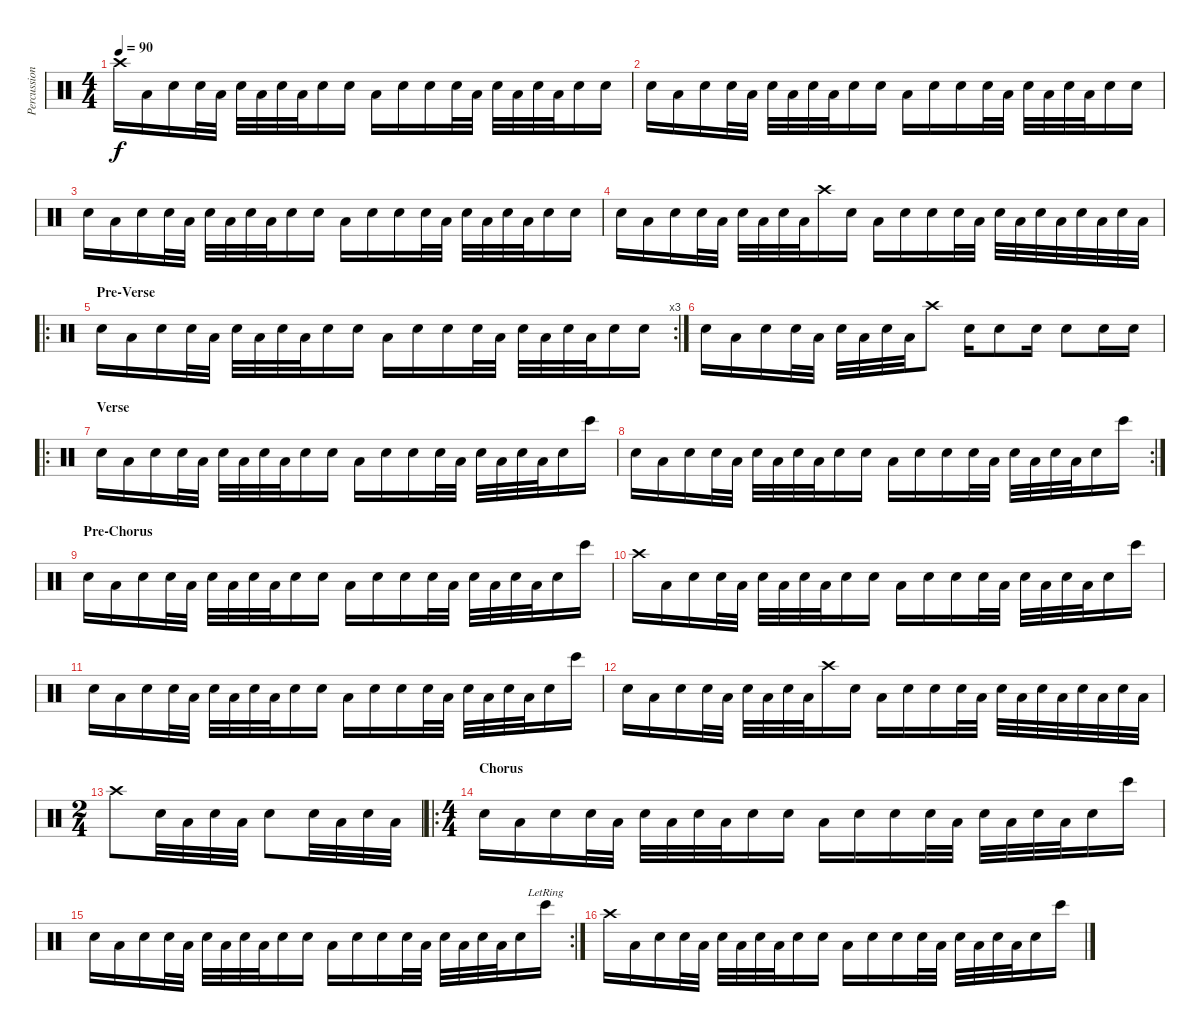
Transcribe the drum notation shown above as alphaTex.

\track ("Percussion" "Percussion") {instrument percussion}
\staff {score}
\articulation defaults
\ts (4 4)
\tempo 90
\clef neutral
\ks c "Crash high (hit)".16{dy f} "Low Floor Tom (hit)".16 "Hand Clap (hit)".16 "Electric Snare (hit)".32 "Low Floor Tom (hit)".32 "Electric Snare (hit)".32 "Low Floor Tom (hit)".32 "Electric Snare (hit)".32 "Low Floor Tom (hit)".32 "Hand Clap (hit)".16 "Electric Snare (hit)".16 "Low Floor Tom (hit)".16 "Electric Snare (hit)".16 "Hand Clap (hit)".16 "Electric Snare (hit)".32 "Low Floor Tom (hit)".32 "Electric Snare (hit)".32 "Low Floor Tom (hit)".32 "Electric Snare (hit)".32 "Low Floor Tom (hit)".32 "Hand Clap (hit)".16 "Snare (hit) 2".16
|
"Electric Snare (hit)".16 "Low Floor Tom (hit)".16 "Hand Clap (hit)".16 "Electric Snare (hit)".32 "Low Floor Tom (hit)".32 "Electric Snare (hit)".32 "Low Floor Tom (hit)".32 "Electric Snare (hit)".32 "Low Floor Tom (hit)".32 "Hand Clap (hit)".16 "Electric Snare (hit)".16 "Low Floor Tom (hit)".16 "Electric Snare (hit)".16 "Hand Clap (hit)".16 "Electric Snare (hit)".32 "Low Floor Tom (hit)".32 "Electric Snare (hit)".32 "Low Floor Tom (hit)".32 "Electric Snare (hit)".32 "Low Floor Tom (hit)".32 "Hand Clap (hit)".16 "Snare (hit) 2".16 |
"Electric Snare (hit)".16 "Low Floor Tom (hit)".16 "Hand Clap (hit)".16 "Electric Snare (hit)".32 "Low Floor Tom (hit)".32 "Electric Snare (hit)".32 "Low Floor Tom (hit)".32 "Electric Snare (hit)".32 "Low Floor Tom (hit)".32 "Hand Clap (hit)".16 "Electric Snare (hit)".16 "Low Floor Tom (hit)".16 "Electric Snare (hit)".16 "Hand Clap (hit)".16 "Electric Snare (hit)".32 "Low Floor Tom (hit)".32 "Electric Snare (hit)".32 "Low Floor Tom (hit)".32 "Electric Snare (hit)".32 "Low Floor Tom (hit)".32 "Hand Clap (hit)".16 "Snare (hit) 2".16 |
"Electric Snare (hit)".16 "Low Floor Tom (hit)".16 "Hand Clap (hit)".16 "Electric Snare (hit)".32 "Low Floor Tom (hit)".32 "Electric Snare (hit)".32 "Low Floor Tom (hit)".32 "Electric Snare (hit)".32 "Low Floor Tom (hit)".32 "Crash high (hit)".16 "Electric Snare (hit)".16 "Low Floor Tom (hit)".16 "Electric Snare (hit)".16 "Hand Clap (hit)".16 "Electric Snare (hit)".32 "Low Floor Tom (hit)".32 "Electric Snare (hit)".32 "Low Floor Tom (hit)".32 "Electric Snare (hit)".32 "Low Floor Tom (hit)".32 "Electric Snare (hit)".32 "Low Floor Tom (hit)".32 "Electric Snare (hit)".32 "Low Floor Tom (hit)".32 |
\ro
\rc 3
\section ("" "Pre-Verse")
"Electric Snare (hit)".16 "Low Floor Tom (hit)".16 "Hand Clap (hit)".16 "Electric Snare (hit)".32 "Low Floor Tom (hit)".32 "Electric Snare (hit)".32 "Low Floor Tom (hit)".32 "Electric Snare (hit)".32 "Low Floor Tom (hit)".32 "Hand Clap (hit)".16 "Electric Snare (hit)".16 "Low Floor Tom (hit)".16 "Electric Snare (hit)".16 "Hand Clap (hit)".16 "Electric Snare (hit)".32 "Low Floor Tom (hit)".32 "Electric Snare (hit)".32 "Low Floor Tom (hit)".32 "Electric Snare (hit)".32 "Low Floor Tom (hit)".32 "Hand Clap (hit)".16 "Snare (hit) 2".16 |
"Electric Snare (hit)".16 "Low Floor Tom (hit)".16 "Hand Clap (hit)".16 "Electric Snare (hit)".32 "Low Floor Tom (hit)".32 "Electric Snare (hit)".32 "Low Floor Tom (hit)".32 "Electric Snare (hit)".32 "Low Floor Tom (hit)".32 "Crash high (hit)".8 "Electric Snare (hit)".16 "Snare (hit) 2".8 "Snare (hit) 2".16 "Snare (hit) 2".8 "Snare (hit) 2".16 "Snare (hit) 2".16 |
\ro
\section ("" "Verse")
"Electric Snare (hit)".16 "Low Floor Tom (hit)".16 "Hand Clap (hit)".16 "Electric Snare (hit)".32 "Low Floor Tom (hit)".32 "Electric Snare (hit)".32 "Low Floor Tom (hit)".32 "Electric Snare (hit)".32 "Low Floor Tom (hit)".32 "Hand Clap (hit)".16 "Electric Snare (hit)".16 "Low Floor Tom (hit)".16 "Electric Snare (hit)".16 "Hand Clap (hit)".16 "Electric Snare (hit)".32 "Low Floor Tom (hit)".32 "Electric Snare (hit)".32 "Low Floor Tom (hit)".32 "Electric Snare (hit)".32 "Low Floor Tom (hit)".32 "Hand Clap (hit)".16 "Bongo High (hit)".16 |
\rc 2 "Electric Snare (hit)".16 "Low Floor Tom (hit)".16 "Hand Clap (hit)".16 "Electric Snare (hit)".32 "Low Floor Tom (hit)".32 "Electric Snare (hit)".32 "Low Floor Tom (hit)".32 "Electric Snare (hit)".32 "Low Floor Tom (hit)".32 "Hand Clap (hit)".16 "Electric Snare (hit)".16 "Low Floor Tom (hit)".16 "Electric Snare (hit)".16 "Hand Clap (hit)".16 "Electric Snare (hit)".32 "Low Floor Tom (hit)".32 "Electric Snare (hit)".32 "Low Floor Tom (hit)".32 "Electric Snare (hit)".32 "Low Floor Tom (hit)".32 "Hand Clap (hit)".16 "Bongo High (hit)".16
|
\section ("" "Pre-Chorus")
"Electric Snare (hit)".16 "Low Floor Tom (hit)".16 "Hand Clap (hit)".16 "Electric Snare (hit)".32 "Low Floor Tom (hit)".32 "Electric Snare (hit)".32 "Low Floor Tom (hit)".32 "Electric Snare (hit)".32 "Low Floor Tom (hit)".32 "Hand Clap (hit)".16 "Electric Snare (hit)".16 "Low Floor Tom (hit)".16 "Electric Snare (hit)".16 "Hand Clap (hit)".16 "Electric Snare (hit)".32 "Low Floor Tom (hit)".32 "Electric Snare (hit)".32 "Low Floor Tom (hit)".32 "Electric Snare (hit)".32 "Low Floor Tom (hit)".32 "Hand Clap (hit)".16 "Bongo High (hit)".16 |
"Crash high (hit)".16 "Low Floor Tom (hit)".16 "Hand Clap (hit)".16 "Electric Snare (hit)".32 "Low Floor Tom (hit)".32 "Electric Snare (hit)".32 "Low Floor Tom (hit)".32 "Electric Snare (hit)".32 "Low Floor Tom (hit)".32 "Hand Clap (hit)".16 "Electric Snare (hit)".16 "Low Floor Tom (hit)".16 "Electric Snare (hit)".16 "Hand Clap (hit)".16 "Electric Snare (hit)".32 "Low Floor Tom (hit)".32 "Electric Snare (hit)".32 "Low Floor Tom (hit)".32 "Electric Snare (hit)".32 "Low Floor Tom (hit)".32 "Hand Clap (hit)".16 "Bongo High (hit)".16 |
"Electric Snare (hit)".16 "Low Floor Tom (hit)".16 "Hand Clap (hit)".16 "Electric Snare (hit)".32 "Low Floor Tom (hit)".32 "Electric Snare (hit)".32 "Low Floor Tom (hit)".32 "Electric Snare (hit)".32 "Low Floor Tom (hit)".32 "Hand Clap (hit)".16 "Electric Snare (hit)".16 "Low Floor Tom (hit)".16 "Electric Snare (hit)".16 "Hand Clap (hit)".16 "Electric Snare (hit)".32 "Low Floor Tom (hit)".32 "Electric Snare (hit)".32 "Low Floor Tom (hit)".32 "Electric Snare (hit)".32 "Low Floor Tom (hit)".32 "Hand Clap (hit)".16 "Bongo High (hit)".16 |
"Electric Snare (hit)".16 "Low Floor Tom (hit)".16 "Hand Clap (hit)".16 "Electric Snare (hit)".32 "Low Floor Tom (hit)".32 "Electric Snare (hit)".32 "Low Floor Tom (hit)".32 "Electric Snare (hit)".32 "Low Floor Tom (hit)".32 "Crash high (hit)".16 "Electric Snare (hit)".16 "Low Floor Tom (hit)".16 "Electric Snare (hit)".16 "Hand Clap (hit)".16 "Electric Snare (hit)".32 "Low Floor Tom (hit)".32 "Electric Snare (hit)".32 "Low Floor Tom (hit)".32 "Electric Snare (hit)".32 "Low Floor Tom (hit)".32 "Electric Snare (hit)".32 "Low Floor Tom (hit)".32 "Electric Snare (hit)".32 "Low Floor Tom (hit)".32 |
\ts (2 4)
"Crash high (hit)".8 "Electric Snare (hit)".32 "Low Floor Tom (hit)".32 "Electric Snare (hit)".32 "Low Floor Tom (hit)".32 "Snare (hit) 2".8 "Electric Snare (hit)".32 "Low Floor Tom (hit)".32 "Electric Snare (hit)".32 "Low Floor Tom (hit)".32 |
\ro
\ts (4 4)
\section ("" "Chorus")
"Electric Snare (hit)".16 "Low Floor Tom (hit)".16 "Hand Clap (hit)".16 "Electric Snare (hit)".32 "Low Floor Tom (hit)".32 "Electric Snare (hit)".32 "Low Floor Tom (hit)".32 "Electric Snare (hit)".32 "Low Floor Tom (hit)".32 "Hand Clap (hit)".16 "Electric Snare (hit)".16 "Low Floor Tom (hit)".16 "Electric Snare (hit)".16 "Hand Clap (hit)".16 "Electric Snare (hit)".32 "Low Floor Tom (hit)".32 "Electric Snare (hit)".32 "Low Floor Tom (hit)".32 "Electric Snare (hit)".32 "Low Floor Tom (hit)".32 "Hand Clap (hit)".16 "Bongo High (hit)".16 |
\rc 2 "Electric Snare (hit)".16 "Low Floor Tom (hit)".16 "Hand Clap (hit)".16 "Electric Snare (hit)".32 "Low Floor Tom (hit)".32 "Electric Snare (hit)".32 "Low Floor Tom (hit)".32 "Electric Snare (hit)".32 "Low Floor Tom (hit)".32 "Hand Clap (hit)".16 "Electric Snare (hit)".16 "Low Floor Tom (hit)".16 "Electric Snare (hit)".16 "Hand Clap (hit)".16 "Electric Snare (hit)".32 "Low Floor Tom (hit)".32 "Electric Snare (hit)".32 "Low Floor Tom (hit)".32 "Electric Snare (hit)".32 "Low Floor Tom (hit)".32 "Hand Clap (hit)".16 "Bongo High (hit)"{lr}.16
|
"Crash high (hit)".16 "Low Floor Tom (hit)".16 "Hand Clap (hit)".16 "Electric Snare (hit)".32 "Low Floor Tom (hit)".32 "Electric Snare (hit)".32 "Low Floor Tom (hit)".32 "Electric Snare (hit)".32 "Low Floor Tom (hit)".32 "Hand Clap (hit)".16 "Electric Snare (hit)".16 "Low Floor Tom (hit)".16 "Electric Snare (hit)".16 "Hand Clap (hit)".16 "Electric Snare (hit)".32 "Low Floor Tom (hit)".32 "Electric Snare (hit)".32 "Low Floor Tom (hit)".32 "Electric Snare (hit)".32 "Low Floor Tom (hit)".32 "Hand Clap (hit)".16 "Bongo High (hit)".16
